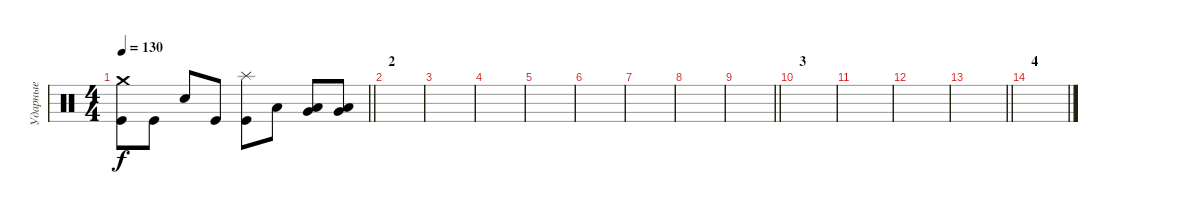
\track ("Ударные" "Ударные") {instrument percussion}
\staff {score}
\articulation defaults
\ts (4 4)
\tempo 130
\clef neutral
\barLineRight lightlight
\ks c
("Crash medium (hit)" "Kick (hit)").8{dy f} "Kick (hit)".8 "Electric Snare (hit)".8 "Kick (hit)".8 ("Splash (hit)" "Kick (hit)").8 "Low Tom (hit)".8 ("Very Low Tom (hit)" "Low Floor Tom (hit)").8 ("Very Low Tom (hit)" "Low Floor Tom (hit)").8 |
\section ("" "2")
|
|
|
|
|
|
|
\barLineRight lightlight
|
\section ("" "3")
|
|
|
\barLineRight lightlight
|
\section ("" "4")
